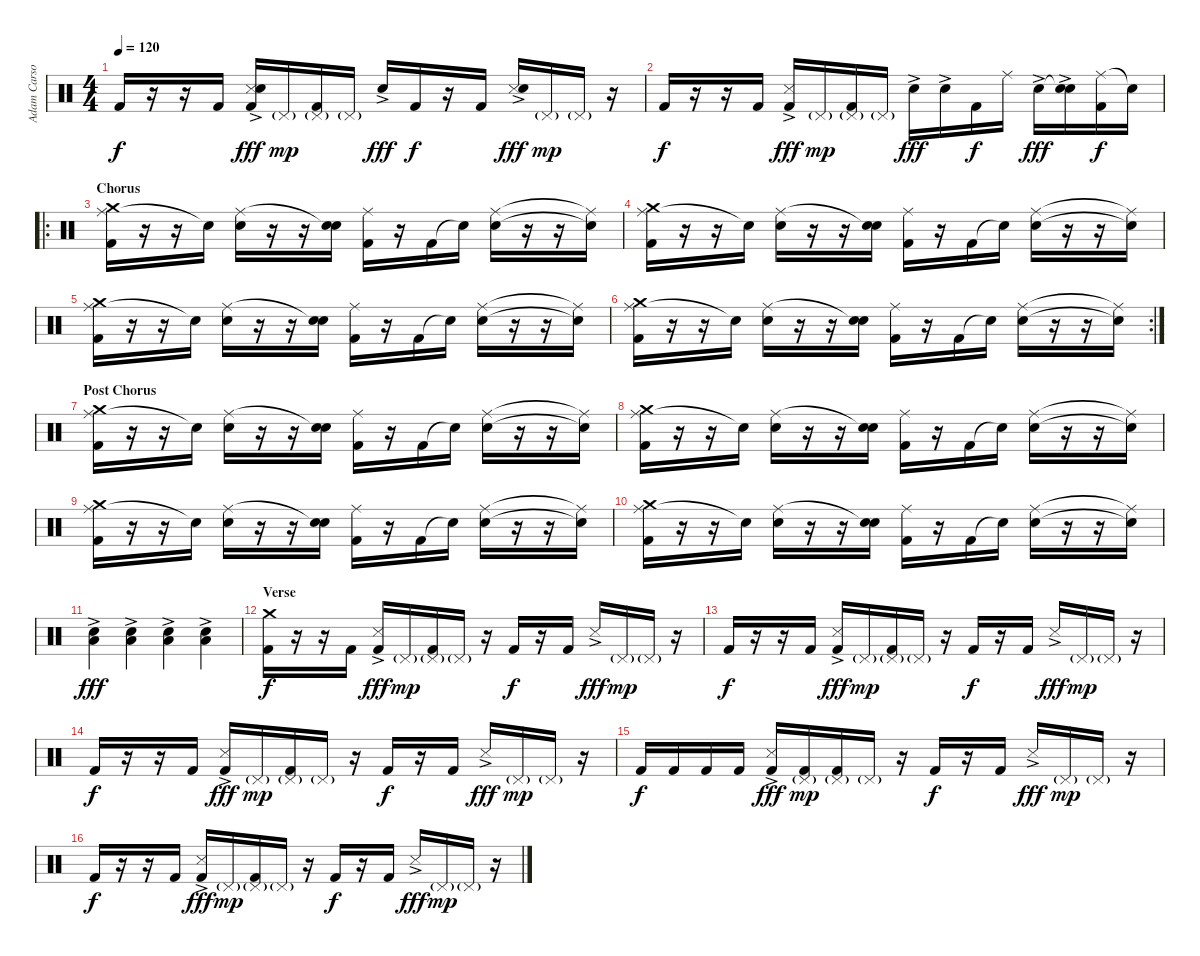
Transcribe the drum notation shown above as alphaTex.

\track ("Adam Carson-Drums" "Adam Carso") {instrument percussion}
\staff {score}
\articulation defaults
\ts (4 4)
\tempo 120
\clef neutral
\ks c "Kick (hit) 2".16{dy f}
r.16 r.16 "Kick (hit) 2".16 ("Kick (hit) 2" "Snare (side stick) 3"{ac} "Hand Clap (hit)").16{dy fff} "Pedal Hi-Hat (hit)"{g}.16{dy mp} ("Kick (hit) 2" "Pedal Hi-Hat (hit)"{g}).16 "Pedal Hi-Hat (hit)"{g}.16 "Hand Clap (hit)"{ac}.16{dy fff} "Kick (hit) 2".16{dy f} r.16 "Kick (hit) 2".16 ("Snare (side stick) 3"{ac} "Hand Clap (hit)"{ac}).16{dy fff} "Pedal Hi-Hat (hit)"{g}.16{dy mp} "Pedal Hi-Hat (hit)"{g}.16 r.16 |
"Kick (hit) 2".16{dy f} r.16 r.16 "Kick (hit) 2".16 ("Kick (hit) 2" "Snare (side stick) 3"{ac}).16{dy fff} "Pedal Hi-Hat (hit)"{g}.16{dy mp} ("Kick (hit) 2" "Pedal Hi-Hat (hit)"{g}).16 "Pedal Hi-Hat (hit)"{g}.16 "Snare (hit) 2"{ac}.16{dy fff} "Snare (hit) 2"{ac}.16 "Kick (hit) 2".16{dy f} "Ride (middle)".16 "Snare (hit) 2"{ac}.16{dy fff} ("Snare (hit)"{t} "Snare (hit) 2"{ac}).16 ("Ride (middle)" "Kick (hit) 2").16{dy f} "Snare (hit)"{t}.16 |
\ro
\section ("" "Chorus")
("Ride (middle)" "Crash medium (hit)" "Kick (hit) 2").16 r.16 r.16 "Snare (hit)"{t}.16 ("Ride (middle)" "Snare (hit) 2").16 r.16 r.16 ("Snare (hit)"{t} "Snare (hit) 2").16 ("Ride (middle)" "Kick (hit) 2").16 r.16 "Kick (hit) 2".16 "Snare (hit)"{t}.16 ("Ride (middle)" "Snare (hit) 2").16 r.16 r.16 ("Ride (middle)"{t} "Snare (hit)"{t}).16 |
("Ride (middle)" "Crash medium (hit)" "Kick (hit) 2").16 r.16 r.16 "Snare (hit)"{t}.16 ("Ride (middle)" "Snare (hit) 2").16 r.16 r.16 ("Snare (hit)"{t} "Snare (hit) 2").16 ("Ride (middle)" "Kick (hit) 2").16 r.16 "Kick (hit) 2".16 "Snare (hit)"{t}.16 ("Ride (middle)" "Snare (hit) 2").16 r.16 r.16 ("Ride (middle)"{t} "Snare (hit)"{t}).16 |
("Ride (middle)" "Crash medium (hit)" "Kick (hit) 2").16 r.16 r.16 "Snare (hit)"{t}.16 ("Ride (middle)" "Snare (hit) 2").16 r.16 r.16 ("Snare (hit)"{t} "Snare (hit) 2").16 ("Ride (middle)" "Kick (hit) 2").16 r.16 "Kick (hit) 2".16 "Snare (hit)"{t}.16 ("Ride (middle)" "Snare (hit) 2").16 r.16 r.16 ("Ride (middle)"{t} "Snare (hit)"{t}).16 |
\rc 2
("Ride (middle)" "Crash medium (hit)" "Kick (hit) 2").16 r.16 r.16 "Snare (hit)"{t}.16 ("Ride (middle)" "Snare (hit) 2").16 r.16 r.16 ("Snare (hit)"{t} "Snare (hit) 2").16 ("Ride (middle)" "Kick (hit) 2").16 r.16 "Kick (hit) 2".16 "Snare (hit)"{t}.16 ("Ride (middle)" "Snare (hit) 2").16 r.16 r.16 ("Ride (middle)"{t} "Snare (hit)"{t}).16 |
\section ("" "Post Chorus")
("Ride (middle)" "Crash medium (hit)" "Kick (hit) 2").16 r.16 r.16 "Snare (hit)"{t}.16 ("Ride (middle)" "Snare (hit) 2").16 r.16 r.16 ("Snare (hit)"{t} "Snare (hit) 2").16 ("Ride (middle)" "Kick (hit) 2").16 r.16 "Kick (hit) 2".16 "Snare (hit)"{t}.16 ("Ride (middle)" "Snare (hit) 2").16 r.16 r.16 ("Ride (middle)"{t} "Snare (hit)"{t}).16 |
("Ride (middle)" "Crash medium (hit)" "Kick (hit) 2").16 r.16 r.16 "Snare (hit)"{t}.16 ("Ride (middle)" "Snare (hit) 2").16 r.16 r.16 ("Snare (hit)"{t} "Snare (hit) 2").16 ("Ride (middle)" "Kick (hit) 2").16 r.16 "Kick (hit) 2".16 "Snare (hit)"{t}.16 ("Ride (middle)" "Snare (hit) 2").16 r.16 r.16 ("Ride (middle)"{t} "Snare (hit)"{t}).16 |
("Ride (middle)" "Crash medium (hit)" "Kick (hit) 2").16 r.16 r.16 "Snare (hit)"{t}.16 ("Ride (middle)" "Snare (hit) 2").16 r.16 r.16 ("Snare (hit)"{t} "Snare (hit) 2").16 ("Ride (middle)" "Kick (hit) 2").16 r.16 "Kick (hit) 2".16 "Snare (hit)"{t}.16 ("Ride (middle)" "Snare (hit) 2").16 r.16 r.16 ("Ride (middle)"{t} "Snare (hit)"{t}).16 |
("Ride (middle)" "Crash medium (hit)" "Kick (hit) 2").16 r.16 r.16 "Snare (hit)"{t}.16 ("Ride (middle)" "Snare (hit) 2").16 r.16 r.16 ("Snare (hit)"{t} "Snare (hit) 2").16 ("Ride (middle)" "Kick (hit) 2").16 r.16 "Kick (hit) 2".16 "Snare (hit)"{t}.16 ("Ride (middle)" "Snare (hit) 2").16 r.16 r.16 ("Ride (middle)"{t} "Snare (hit)"{t}).16 |
("Low Floor Tom (hit)" "Hand Clap (hit)"{ac}).4{dy fff} ("Low Floor Tom (hit)" "Hand Clap (hit)"{ac}).4 ("Low Floor Tom (hit)" "Hand Clap (hit)"{ac}).4 ("Low Floor Tom (hit)" "Hand Clap (hit)"{ac}).4 |
\section ("" "Verse")
("Kick (hit) 2" "Crash medium (hit)").16{dy f volume 16 balance 8} r.16 r.16 "Kick (hit) 2".16 ("Kick (hit) 2" "Snare (side stick) 3"{ac}).16{dy fff} "Pedal Hi-Hat (hit)"{g}.16{dy mp} ("Kick (hit) 2" "Pedal Hi-Hat (hit)"{g}).16 "Pedal Hi-Hat (hit)"{g}.16 r.16 "Kick (hit) 2".16{dy f} r.16 "Kick (hit) 2".16 "Snare (side stick) 3"{ac}.16{dy fff} "Pedal Hi-Hat (hit)"{g}.16{dy mp} "Pedal Hi-Hat (hit)"{g}.16 r.16 |
"Kick (hit) 2".16{dy f} r.16 r.16 "Kick (hit) 2".16 ("Kick (hit) 2" "Snare (side stick) 3"{ac}).16{dy fff} "Pedal Hi-Hat (hit)"{g}.16{dy mp} ("Kick (hit) 2" "Pedal Hi-Hat (hit)"{g}).16 "Pedal Hi-Hat (hit)"{g}.16 r.16 "Kick (hit) 2".16{dy f} r.16 "Kick (hit) 2".16 "Snare (side stick) 3"{ac}.16{dy fff} "Pedal Hi-Hat (hit)"{g}.16{dy mp} "Pedal Hi-Hat (hit)"{g}.16 r.16 |
"Kick (hit) 2".16{dy f} r.16 r.16 "Kick (hit) 2".16 ("Kick (hit) 2" "Snare (side stick) 3"{ac}).16{dy fff} "Pedal Hi-Hat (hit)"{g}.16{dy mp} ("Kick (hit) 2" "Pedal Hi-Hat (hit)"{g}).16 "Pedal Hi-Hat (hit)"{g}.16 r.16 "Kick (hit) 2".16{dy f} r.16 "Kick (hit) 2".16 "Snare (side stick) 3"{ac}.16{dy fff} "Pedal Hi-Hat (hit)"{g}.16{dy mp} "Pedal Hi-Hat (hit)"{g}.16 r.16 |
"Kick (hit) 2".16{dy f} "Kick (hit) 2".16 "Kick (hit) 2".16 "Kick (hit) 2".16 ("Kick (hit) 2" "Snare (side stick) 3"{ac}).16{dy fff} ("Kick (hit) 2" "Pedal Hi-Hat (hit)"{g}).16{dy mp} ("Kick (hit) 2" "Pedal Hi-Hat (hit)"{g}).16 "Pedal Hi-Hat (hit)"{g}.16 r.16 "Kick (hit) 2".16{dy f} r.16 "Kick (hit) 2".16 "Snare (side stick) 3"{ac}.16{dy fff} "Pedal Hi-Hat (hit)"{g}.16{dy mp} "Pedal Hi-Hat (hit)"{g}.16 r.16 |
"Kick (hit) 2".16{dy f} r.16 r.16 "Kick (hit) 2".16 ("Kick (hit) 2" "Snare (side stick) 3"{ac}).16{dy fff} "Pedal Hi-Hat (hit)"{g}.16{dy mp} ("Kick (hit) 2" "Pedal Hi-Hat (hit)"{g}).16 "Pedal Hi-Hat (hit)"{g}.16 r.16 "Kick (hit) 2".16{dy f} r.16 "Kick (hit) 2".16 "Snare (side stick) 3"{ac}.16{dy fff} "Pedal Hi-Hat (hit)"{g}.16{dy mp} "Pedal Hi-Hat (hit)"{g}.16 r.16
